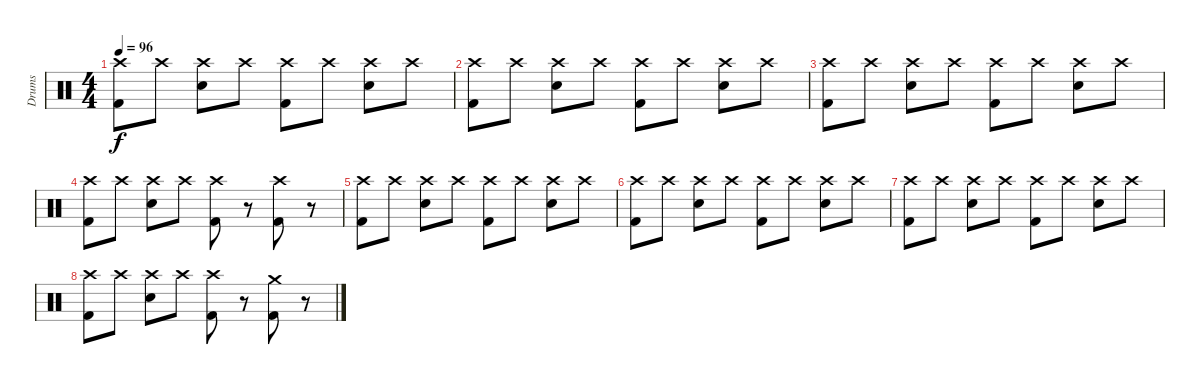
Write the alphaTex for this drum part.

\track ("Drums" "Drums") {instrument percussion}
\staff {score}
\articulation defaults
\ts (4 4)
\tempo 96
\clef neutral
\ks c
("Crash high (hit)" "Kick (hit) 2").8{dy f} "Crash high (hit)".8 ("Crash high (hit)" "Snare (hit) 2").8 "Crash high (hit)".8 ("Crash high (hit)" "Kick (hit) 2").8 "Crash high (hit)".8 ("Crash high (hit)" "Snare (hit) 2").8 "Crash high (hit)".8 |
("Crash high (hit)" "Kick (hit) 2").8 "Crash high (hit)".8 ("Crash high (hit)" "Snare (hit) 2").8 "Crash high (hit)".8 ("Crash high (hit)" "Kick (hit) 2").8 "Crash high (hit)".8 ("Crash high (hit)" "Snare (hit) 2").8 "Crash high (hit)".8 |
("Crash high (hit)" "Kick (hit) 2").8 "Crash high (hit)".8 ("Crash high (hit)" "Snare (hit) 2").8 "Crash high (hit)".8 ("Crash high (hit)" "Kick (hit) 2").8 "Crash high (hit)".8 ("Crash high (hit)" "Snare (hit) 2").8 "Crash high (hit)".8 |
("Crash high (hit)" "Kick (hit) 2").8{volume 0} "Crash high (hit)".8 ("Crash high (hit)" "Snare (hit) 2").8 "Crash high (hit)".8 ("Crash high (hit)" "Kick (hit) 2").8 r.8 ("Crash high (hit)" "Kick (hit) 2").8 r.8 |
("Crash high (hit)" "Kick (hit) 2").8 "Crash high (hit)".8 ("Crash high (hit)" "Snare (hit) 2").8 "Crash high (hit)".8 ("Crash high (hit)" "Kick (hit) 2").8 "Crash high (hit)".8 ("Crash high (hit)" "Snare (hit) 2").8 "Crash high (hit)".8 |
("Crash high (hit)" "Kick (hit) 2").8 "Crash high (hit)".8 ("Crash high (hit)" "Snare (hit) 2").8 "Crash high (hit)".8 ("Crash high (hit)" "Kick (hit) 2").8 "Crash high (hit)".8 ("Crash high (hit)" "Snare (hit) 2").8 "Crash high (hit)".8 |
("Crash high (hit)" "Kick (hit) 2").8 "Crash high (hit)".8 ("Crash high (hit)" "Snare (hit) 2").8 "Crash high (hit)".8 ("Crash high (hit)" "Kick (hit) 2").8 "Crash high (hit)".8 ("Crash high (hit)" "Snare (hit) 2").8 "Crash high (hit)".8 |
("Crash high (hit)" "Kick (hit) 2").8 "Crash high (hit)".8 ("Crash high (hit)" "Snare (hit) 2").8 "Crash high (hit)".8 ("Crash high (hit)" "Kick (hit) 2").8 r.8 ("Crash medium (hit)" "Kick (hit) 2").8 r.8
